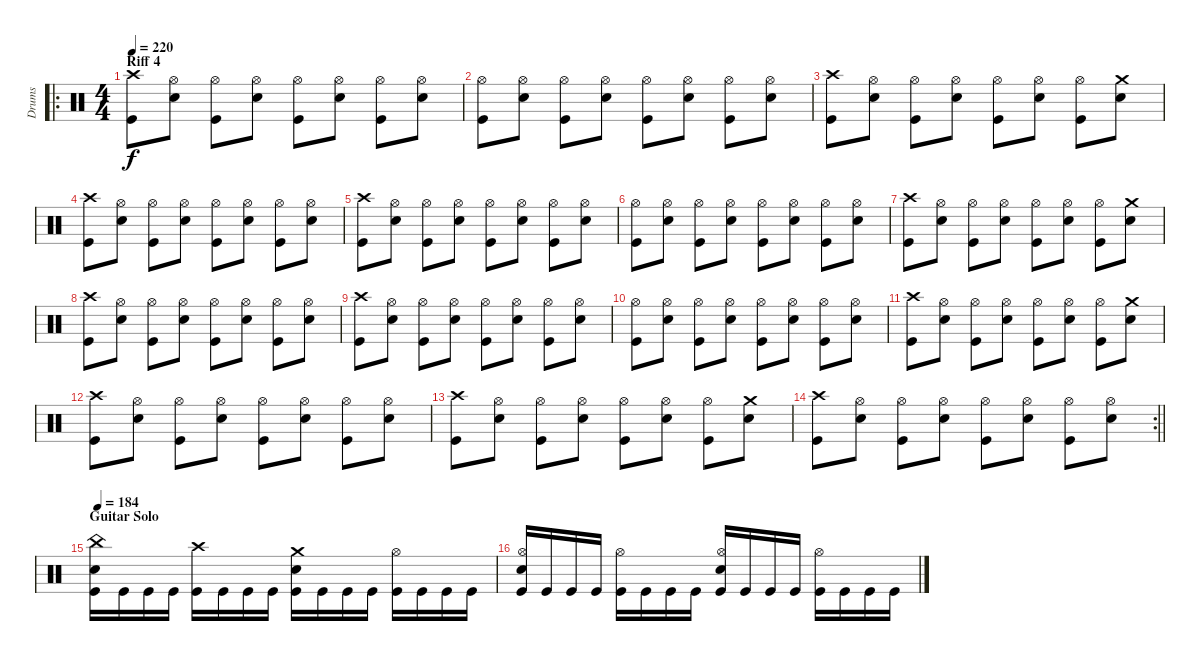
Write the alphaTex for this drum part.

\track ("Drums" "Drums") {instrument percussion}
\staff {score}
\articulation defaults
\ro
\ts (4 4)
\section ("" "Riff 4")
\tempo 220
\clef neutral
\ks c
("Crash high (hit)" "Kick (hit)").8{dy f} ("Hi-Hat (open)" "Snare (hit) 2").8 ("Hi-Hat (open)" "Kick (hit)").8 ("Hi-Hat (open)" "Snare (hit) 2").8 ("Hi-Hat (open)" "Kick (hit)").8 ("Hi-Hat (open)" "Snare (hit) 2").8 ("Hi-Hat (open)" "Kick (hit)").8 ("Hi-Hat (open)" "Snare (hit) 2").8 |
("Hi-Hat (open)" "Kick (hit)").8 ("Hi-Hat (open)" "Snare (hit) 2").8 ("Hi-Hat (open)" "Kick (hit)").8 ("Hi-Hat (open)" "Snare (hit) 2").8 ("Hi-Hat (open)" "Kick (hit)").8 ("Hi-Hat (open)" "Snare (hit) 2").8 ("Hi-Hat (open)" "Kick (hit)").8 ("Hi-Hat (open)" "Snare (hit) 2").8 |
("Crash high (hit)" "Kick (hit)").8 ("Hi-Hat (open)" "Snare (hit) 2").8 ("Hi-Hat (open)" "Kick (hit)").8 ("Hi-Hat (open)" "Snare (hit) 2").8 ("Hi-Hat (open)" "Kick (hit)").8 ("Hi-Hat (open)" "Snare (hit) 2").8 ("Hi-Hat (open)" "Kick (hit)").8 ("Crash medium (hit)" "Snare (hit) 2").8 |
("Crash high (hit)" "Kick (hit)").8 ("Hi-Hat (open)" "Snare (hit) 2").8 ("Hi-Hat (open)" "Kick (hit)").8 ("Hi-Hat (open)" "Snare (hit) 2").8 ("Hi-Hat (open)" "Kick (hit)").8 ("Hi-Hat (open)" "Snare (hit) 2").8 ("Hi-Hat (open)" "Kick (hit)").8 ("Hi-Hat (open)" "Snare (hit) 2").8 |
("Crash high (hit)" "Kick (hit)").8 ("Hi-Hat (open)" "Snare (hit) 2").8 ("Hi-Hat (open)" "Kick (hit)").8 ("Hi-Hat (open)" "Snare (hit) 2").8 ("Hi-Hat (open)" "Kick (hit)").8 ("Hi-Hat (open)" "Snare (hit) 2").8 ("Hi-Hat (open)" "Kick (hit)").8 ("Hi-Hat (open)" "Snare (hit) 2").8 |
("Hi-Hat (open)" "Kick (hit)").8 ("Hi-Hat (open)" "Snare (hit) 2").8 ("Hi-Hat (open)" "Kick (hit)").8 ("Hi-Hat (open)" "Snare (hit) 2").8 ("Hi-Hat (open)" "Kick (hit)").8 ("Hi-Hat (open)" "Snare (hit) 2").8 ("Hi-Hat (open)" "Kick (hit)").8 ("Hi-Hat (open)" "Snare (hit) 2").8 |
("Crash high (hit)" "Kick (hit)").8 ("Hi-Hat (open)" "Snare (hit) 2").8 ("Hi-Hat (open)" "Kick (hit)").8 ("Hi-Hat (open)" "Snare (hit) 2").8 ("Hi-Hat (open)" "Kick (hit)").8 ("Hi-Hat (open)" "Snare (hit) 2").8 ("Hi-Hat (open)" "Kick (hit)").8 ("Crash medium (hit)" "Snare (hit) 2").8 |
("Crash high (hit)" "Kick (hit)").8 ("Hi-Hat (open)" "Snare (hit) 2").8 ("Hi-Hat (open)" "Kick (hit)").8 ("Hi-Hat (open)" "Snare (hit) 2").8 ("Hi-Hat (open)" "Kick (hit)").8 ("Hi-Hat (open)" "Snare (hit) 2").8 ("Hi-Hat (open)" "Kick (hit)").8 ("Hi-Hat (open)" "Snare (hit) 2").8 |
("Crash high (hit)" "Kick (hit)").8 ("Hi-Hat (open)" "Snare (hit) 2").8 ("Hi-Hat (open)" "Kick (hit)").8 ("Hi-Hat (open)" "Snare (hit) 2").8 ("Hi-Hat (open)" "Kick (hit)").8 ("Hi-Hat (open)" "Snare (hit) 2").8 ("Hi-Hat (open)" "Kick (hit)").8 ("Hi-Hat (open)" "Snare (hit) 2").8 |
("Hi-Hat (open)" "Kick (hit)").8 ("Hi-Hat (open)" "Snare (hit) 2").8 ("Hi-Hat (open)" "Kick (hit)").8 ("Hi-Hat (open)" "Snare (hit) 2").8 ("Hi-Hat (open)" "Kick (hit)").8 ("Hi-Hat (open)" "Snare (hit) 2").8 ("Hi-Hat (open)" "Kick (hit)").8 ("Hi-Hat (open)" "Snare (hit) 2").8 |
("Crash high (hit)" "Kick (hit)").8 ("Hi-Hat (open)" "Snare (hit) 2").8 ("Hi-Hat (open)" "Kick (hit)").8 ("Hi-Hat (open)" "Snare (hit) 2").8 ("Hi-Hat (open)" "Kick (hit)").8 ("Hi-Hat (open)" "Snare (hit) 2").8 ("Hi-Hat (open)" "Kick (hit)").8 ("Crash medium (hit)" "Snare (hit) 2").8 |
("Crash high (hit)" "Kick (hit)").8 ("Hi-Hat (open)" "Snare (hit) 2").8 ("Hi-Hat (open)" "Kick (hit)").8 ("Hi-Hat (open)" "Snare (hit) 2").8 ("Hi-Hat (open)" "Kick (hit)").8 ("Hi-Hat (open)" "Snare (hit) 2").8 ("Hi-Hat (open)" "Kick (hit)").8 ("Hi-Hat (open)" "Snare (hit) 2").8 |
("Crash high (hit)" "Kick (hit)").8 ("Hi-Hat (open)" "Snare (hit) 2").8 ("Hi-Hat (open)" "Kick (hit)").8 ("Hi-Hat (open)" "Snare (hit) 2").8 ("Hi-Hat (open)" "Kick (hit)").8 ("Hi-Hat (open)" "Snare (hit) 2").8 ("Hi-Hat (open)" "Kick (hit)").8 ("Crash medium (hit)" "Snare (hit) 2").8 |
\rc 2
\barLineRight lightlight
("Crash high (hit)" "Kick (hit)").8 ("Hi-Hat (open)" "Snare (hit) 2").8 ("Hi-Hat (open)" "Kick (hit)").8 ("Hi-Hat (open)" "Snare (hit) 2").8 ("Hi-Hat (open)" "Kick (hit)").8 ("Hi-Hat (open)" "Snare (hit) 2").8 ("Hi-Hat (open)" "Kick (hit)").8 ("Hi-Hat (open)" "Snare (hit) 2").8 |
\section ("" "Guitar Solo")
\tempo 184
("China (hit)" "Snare (hit) 2" "Kick (hit)").16 "Kick (hit)".16 "Kick (hit)".16 "Kick (hit)".16 ("Crash high (hit)" "Kick (hit)").16 "Kick (hit)".16 "Kick (hit)".16 "Kick (hit)".16 ("Crash medium (hit)" "Snare (hit) 2" "Kick (hit)").16 "Kick (hit)".16 "Kick (hit)".16 "Kick (hit)".16 ("Hi-Hat (open)" "Kick (hit)").16 "Kick (hit)".16 "Kick (hit)".16 "Kick (hit)".16 |
("Hi-Hat (open)" "Snare (hit) 2" "Kick (hit)").16 "Kick (hit)".16 "Kick (hit)".16 "Kick (hit)".16 ("Hi-Hat (open)" "Kick (hit)").16 "Kick (hit)".16 "Kick (hit)".16 "Kick (hit)".16 ("Hi-Hat (open)" "Snare (hit) 2" "Kick (hit)").16 "Kick (hit)".16 "Kick (hit)".16 "Kick (hit)".16 ("Hi-Hat (open)" "Kick (hit)").16 "Kick (hit)".16 "Kick (hit)".16 "Kick (hit)".16
